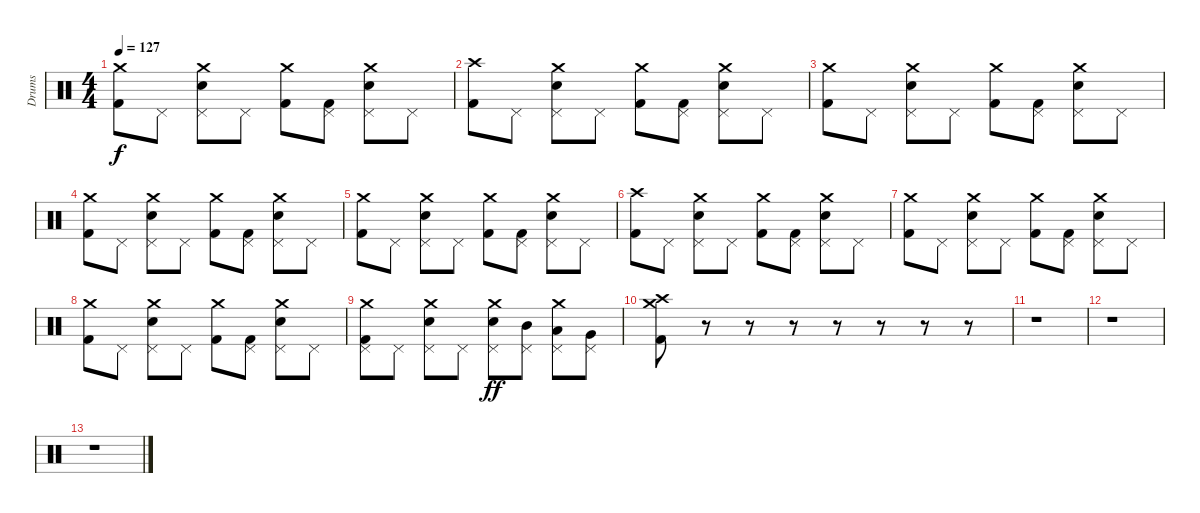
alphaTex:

\track ("Drums" "Drums") {instrument percussion}
\staff {score}
\articulation defaults
\ts (4 4)
\tempo 127
\clef neutral
\ks c
("Crash medium (hit)" "Kick (hit) 2").8{dy f} "Pedal Hi-Hat (hit)".8 ("Crash medium (hit)" "Pedal Hi-Hat (hit)" "Snare (hit) 2").8 "Pedal Hi-Hat (hit)".8 ("Crash medium (hit)" "Kick (hit) 2").8 ("Pedal Hi-Hat (hit)" "Kick (hit) 2").8 ("Crash medium (hit)" "Pedal Hi-Hat (hit)" "Snare (hit) 2").8 "Pedal Hi-Hat (hit)".8 |
("Crash high (hit)" "Kick (hit) 2").8 "Pedal Hi-Hat (hit)".8 ("Crash medium (hit)" "Pedal Hi-Hat (hit)" "Snare (hit) 2").8 "Pedal Hi-Hat (hit)".8 ("Crash medium (hit)" "Kick (hit) 2").8 ("Pedal Hi-Hat (hit)" "Kick (hit) 2").8 ("Crash medium (hit)" "Pedal Hi-Hat (hit)" "Snare (hit) 2").8 "Pedal Hi-Hat (hit)".8 |
("Crash medium (hit)" "Kick (hit) 2").8 "Pedal Hi-Hat (hit)".8 ("Crash medium (hit)" "Pedal Hi-Hat (hit)" "Snare (hit) 2").8 "Pedal Hi-Hat (hit)".8 ("Crash medium (hit)" "Kick (hit) 2").8 ("Pedal Hi-Hat (hit)" "Kick (hit) 2").8 ("Crash medium (hit)" "Pedal Hi-Hat (hit)" "Snare (hit) 2").8 "Pedal Hi-Hat (hit)".8 |
("Crash medium (hit)" "Kick (hit) 2").8 "Pedal Hi-Hat (hit)".8 ("Crash medium (hit)" "Pedal Hi-Hat (hit)" "Snare (hit) 2").8 "Pedal Hi-Hat (hit)".8 ("Crash medium (hit)" "Kick (hit) 2").8 ("Pedal Hi-Hat (hit)" "Kick (hit) 2").8 ("Crash medium (hit)" "Pedal Hi-Hat (hit)" "Snare (hit) 2").8 "Pedal Hi-Hat (hit)".8 |
("Crash medium (hit)" "Kick (hit) 2").8 "Pedal Hi-Hat (hit)".8 ("Crash medium (hit)" "Pedal Hi-Hat (hit)" "Snare (hit) 2").8 "Pedal Hi-Hat (hit)".8 ("Crash medium (hit)" "Kick (hit) 2").8 ("Pedal Hi-Hat (hit)" "Kick (hit) 2").8 ("Crash medium (hit)" "Pedal Hi-Hat (hit)" "Snare (hit) 2").8 "Pedal Hi-Hat (hit)".8 |
("Crash high (hit)" "Kick (hit) 2").8 "Pedal Hi-Hat (hit)".8 ("Crash medium (hit)" "Pedal Hi-Hat (hit)" "Snare (hit) 2").8 "Pedal Hi-Hat (hit)".8 ("Crash medium (hit)" "Kick (hit) 2").8 ("Pedal Hi-Hat (hit)" "Kick (hit) 2").8 ("Crash medium (hit)" "Pedal Hi-Hat (hit)" "Snare (hit) 2").8 "Pedal Hi-Hat (hit)".8 |
("Crash medium (hit)" "Kick (hit) 2").8 "Pedal Hi-Hat (hit)".8 ("Crash medium (hit)" "Pedal Hi-Hat (hit)" "Snare (hit) 2").8 "Pedal Hi-Hat (hit)".8 ("Crash medium (hit)" "Kick (hit) 2").8 ("Pedal Hi-Hat (hit)" "Kick (hit) 2").8 ("Crash medium (hit)" "Pedal Hi-Hat (hit)" "Snare (hit) 2").8 "Pedal Hi-Hat (hit)".8 |
("Crash medium (hit)" "Kick (hit) 2").8 "Pedal Hi-Hat (hit)".8 ("Crash medium (hit)" "Pedal Hi-Hat (hit)" "Snare (hit) 2").8 "Pedal Hi-Hat (hit)".8 ("Crash medium (hit)" "Kick (hit) 2").8 ("Pedal Hi-Hat (hit)" "Kick (hit) 2").8 ("Crash medium (hit)" "Pedal Hi-Hat (hit)" "Snare (hit) 2").8 "Pedal Hi-Hat (hit)".8 |
("Crash medium (hit)" "Pedal Hi-Hat (hit)" "Kick (hit) 2").8 "Pedal Hi-Hat (hit)".8 ("Crash medium (hit)" "Pedal Hi-Hat (hit)" "Snare (hit) 2").8 "Pedal Hi-Hat (hit)".8 ("Crash medium (hit)" "Pedal Hi-Hat (hit)" "Snare (hit) 2").8{dy ff} ("Pedal Hi-Hat (hit)" "Mid Tom (hit)").8 ("Crash medium (hit)" "Pedal Hi-Hat (hit)" "Low Tom (hit)").8 ("Pedal Hi-Hat (hit)" "Very Low Tom (hit)").8 |
("Crash medium (hit)" "Crash high (hit)" "Kick (hit) 2").8 r.8 r.8 r.8 r.8 r.8 r.8 r.8 |
r.1 |
r.1 |
r.1
